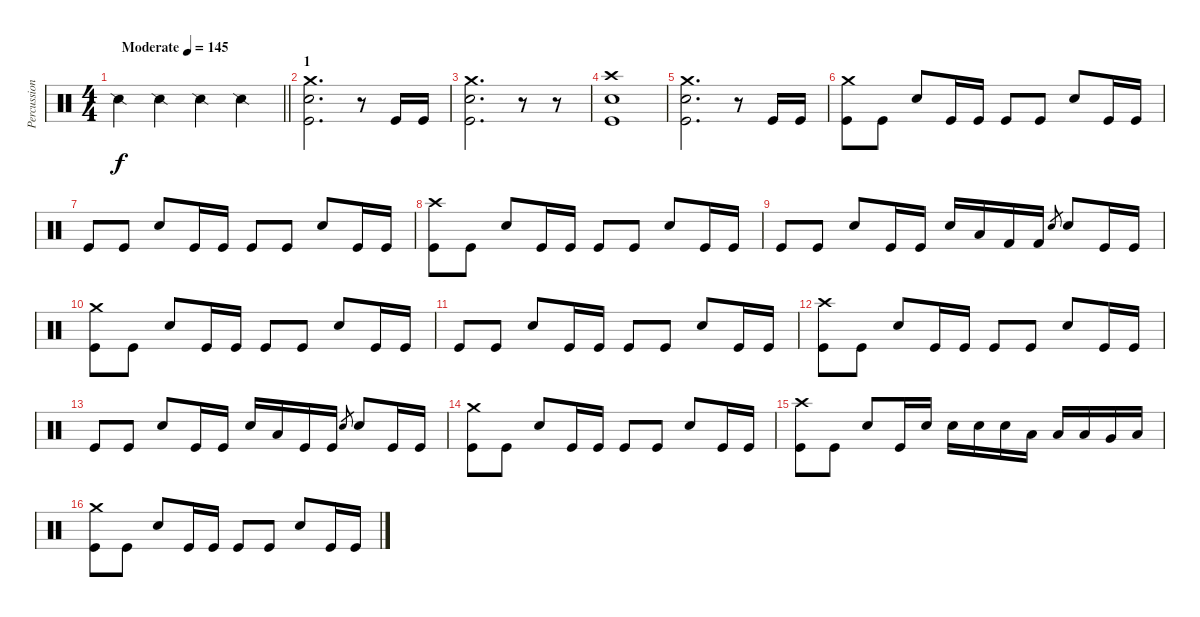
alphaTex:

\track ("Percussion" "Percussion") {instrument percussion}
\staff {score}
\articulation defaults
\ts (4 4)
\tempo (145 "Moderate")
\clef neutral
\barLineRight lightlight
\ks c "Snare (side stick) 2".4{dy f} "Snare (side stick) 2".4 "Snare (side stick) 2".4 "Snare (side stick) 2".4
|
\section ("" "1")
("Crash medium (hit)" "Snare (hit) 2" "Kick (hit)").2{d volume 0} r.8 "Kick (hit)".16{volume 13} "Kick (hit)".16 |
("Crash medium (hit)" "Snare (hit) 2" "Kick (hit)").2{d volume 0} r.8 r.8{volume 13} |
("Crash high (hit)" "Snare (hit) 2" "Kick (hit)").1 |
("Crash medium (hit)" "Snare (hit) 2" "Kick (hit)").2{d volume 0} r.8 "Kick (hit)".16{volume 13} "Kick (hit)".16 |
("Crash medium (hit)" "Kick (hit)").8 "Kick (hit)".8 "Snare (hit) 2".8 "Kick (hit)".16 "Kick (hit)".16 "Kick (hit)".8 "Kick (hit)".8 "Snare (hit) 2".8 "Kick (hit)".16 "Kick (hit)".16 |
"Kick (hit)".8 "Kick (hit)".8 "Snare (hit) 2".8 "Kick (hit)".16 "Kick (hit)".16 "Kick (hit)".8 "Kick (hit)".8 "Snare (hit) 2".8 "Kick (hit)".16 "Kick (hit)".16 |
("Crash high (hit)" "Kick (hit)").8 "Kick (hit)".8 "Snare (hit) 2".8 "Kick (hit)".16 "Kick (hit)".16 "Kick (hit)".8 "Kick (hit)".8 "Snare (hit) 2".8 "Kick (hit)".16 "Kick (hit)".16 |
"Kick (hit)".8 "Kick (hit)".8 "Snare (hit) 2".8 "Kick (hit)".16 "Kick (hit)".16 "Snare (hit) 2".16 "Low Tom (hit)".16 "Kick (hit) 2".16 "Kick (hit) 2".16 "Snare (hit) 2".8{gr} "Snare (hit) 2".8 "Kick (hit)".16 "Kick (hit)".16 |
("Crash medium (hit)" "Kick (hit)").8 "Kick (hit)".8 "Snare (hit) 2".8 "Kick (hit)".16 "Kick (hit)".16 "Kick (hit)".8 "Kick (hit)".8 "Snare (hit) 2".8 "Kick (hit)".16 "Kick (hit)".16 |
"Kick (hit)".8 "Kick (hit)".8 "Snare (hit) 2".8 "Kick (hit)".16 "Kick (hit)".16 "Kick (hit)".8 "Kick (hit)".8 "Snare (hit) 2".8 "Kick (hit)".16 "Kick (hit)".16 |
("Crash high (hit)" "Kick (hit)").8 "Kick (hit)".8 "Snare (hit) 2".8 "Kick (hit)".16 "Kick (hit)".16 "Kick (hit)".8 "Kick (hit)".8 "Snare (hit) 2".8 "Kick (hit)".16 "Kick (hit)".16 |
"Kick (hit)".8 "Kick (hit)".8 "Snare (hit) 2".8 "Kick (hit)".16 "Kick (hit)".16 "Snare (hit) 2".16 "Low Tom (hit)".16 "Kick (hit)".16 "Kick (hit)".16 "Snare (hit) 2".8{gr} "Snare (hit) 2".8 "Kick (hit)".16 "Kick (hit)".16 |
("Crash medium (hit)" "Kick (hit)").8 "Kick (hit)".8 "Snare (hit) 2".8 "Kick (hit)".16 "Kick (hit)".16 "Kick (hit)".8 "Kick (hit)".8 "Snare (hit) 2".8 "Kick (hit)".16 "Kick (hit)".16 |
("Crash high (hit)" "Kick (hit)").8 "Kick (hit)".8 "Snare (hit) 2".8 "Kick (hit)".16 "Snare (hit) 2".16 "Snare (hit) 2".16 "Snare (hit) 2".16 "Snare (hit) 2".16 "Low Tom (hit)".16 "Low Tom (hit)".16 "Low Tom (hit)".16 "Very Low Tom (hit)".16 "Low Floor Tom (hit)".16 |
("Crash medium (hit)" "Kick (hit)").8 "Kick (hit)".8 "Snare (hit) 2".8 "Kick (hit)".16 "Kick (hit)".16 "Kick (hit)".8 "Kick (hit)".8 "Snare (hit) 2".8 "Kick (hit)".16 "Kick (hit)".16
